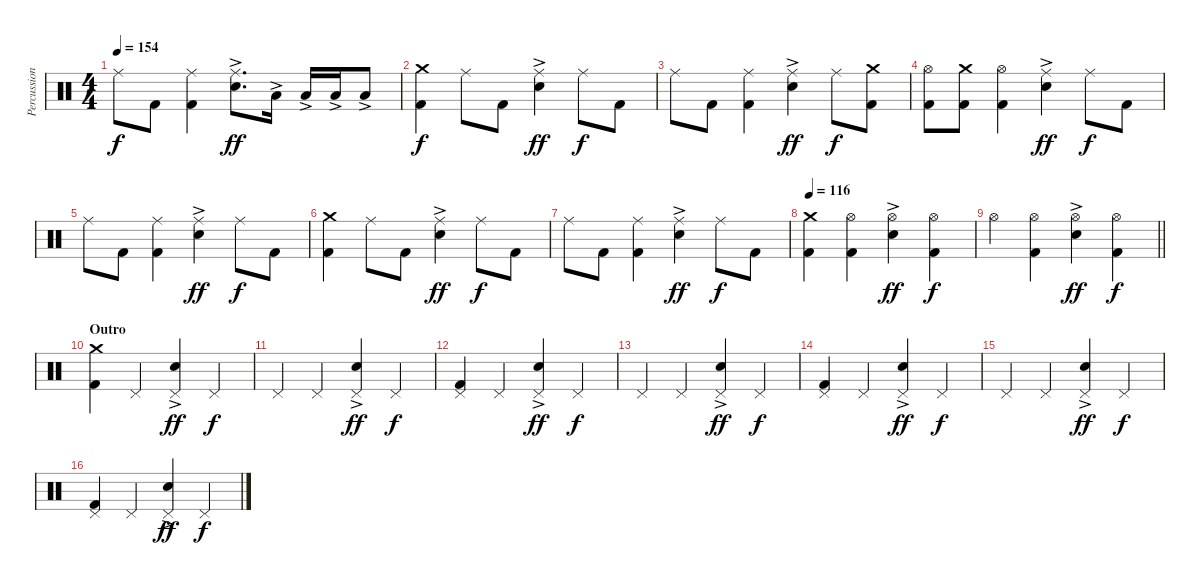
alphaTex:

\track ("Percussion" "Percussion") {instrument percussion}
\staff {score}
\articulation defaults
\ts (4 4)
\tempo 154
\clef neutral
\ks c "Ride (middle)".8{dy f} "Kick (hit) 2".8
("Ride (middle)" "Kick (hit) 2").4 ("Ride (middle)" "Electric Snare (hit)"{ac}).8{d dy ff} "Low Tom (hit)"{ac}.16 "Low Tom (hit)"{ac}.16 "Low Tom (hit)"{ac}.16 "Low Tom (hit)"{ac}.8 |
("Crash medium (hit)" "Kick (hit) 2").4{dy f} "Ride (middle)".8 "Kick (hit) 2".8 ("Ride (middle)" "Electric Snare (hit)"{ac}).4{dy ff} "Ride (middle)".8{dy f} "Kick (hit) 2".8 |
"Ride (middle)".8 "Kick (hit) 2".8 ("Ride (middle)" "Kick (hit) 2").4 ("Ride (middle)" "Electric Snare (hit)"{ac}).4{dy ff} "Ride (middle)".8{dy f} ("Crash medium (hit)" "Kick (hit) 2").8 |
("Hi-Hat (open)" "Kick (hit) 2").8 ("Crash medium (hit)" "Kick (hit) 2").8 ("Hi-Hat (open)" "Kick (hit) 2").4 ("Ride (middle)" "Electric Snare (hit)"{ac}).4{dy ff} "Ride (middle)".8{dy f} "Kick (hit) 2".8 |
"Ride (middle)".8 "Kick (hit) 2".8 ("Ride (middle)" "Kick (hit) 2").4 ("Ride (middle)" "Electric Snare (hit)"{ac}).4{dy ff} "Ride (middle)".8{dy f} "Kick (hit) 2".8 |
("Crash medium (hit)" "Kick (hit) 2").4 "Ride (middle)".8 "Kick (hit) 2".8 ("Ride (middle)" "Electric Snare (hit)"{ac}).4{dy ff} "Ride (middle)".8{dy f} "Kick (hit) 2".8 |
"Ride (middle)".8 "Kick (hit) 2".8 ("Ride (middle)" "Kick (hit) 2").4 ("Ride (middle)" "Electric Snare (hit)"{ac}).4{dy ff} "Ride (middle)".8{dy f} "Kick (hit) 2".8 |
\tempo 116
("Crash medium (hit)" "Kick (hit) 2").4 ("Hi-Hat (open)" "Kick (hit) 2").4 ("Hi-Hat (open)" "Electric Snare (hit)"{ac}).4{dy ff} ("Hi-Hat (open)" "Kick (hit) 2").4{dy f} |
\barLineRight lightlight "Hi-Hat (open)".4
("Hi-Hat (open)" "Kick (hit) 2").4 ("Hi-Hat (open)" "Electric Snare (hit)"{ac}).4{dy ff} ("Hi-Hat (open)" "Kick (hit) 2").4{dy f} |
\section ("" "Outro")
("Crash medium (hit)" "Kick (hit) 2").4 "Pedal Hi-Hat (hit)".4 ("Pedal Hi-Hat (hit)" "Electric Snare (hit)"{ac}).4{dy ff} "Pedal Hi-Hat (hit)".4{dy f} |
"Pedal Hi-Hat (hit)".4 "Pedal Hi-Hat (hit)".4 ("Pedal Hi-Hat (hit)" "Electric Snare (hit)"{ac}).4{dy ff} "Pedal Hi-Hat (hit)".4{dy f} |
("Pedal Hi-Hat (hit)" "Kick (hit) 2").4 "Pedal Hi-Hat (hit)".4 ("Pedal Hi-Hat (hit)" "Electric Snare (hit)"{ac}).4{dy ff} "Pedal Hi-Hat (hit)".4{dy f} |
"Pedal Hi-Hat (hit)".4 "Pedal Hi-Hat (hit)".4 ("Pedal Hi-Hat (hit)" "Electric Snare (hit)"{ac}).4{dy ff} "Pedal Hi-Hat (hit)".4{dy f} |
("Pedal Hi-Hat (hit)" "Kick (hit) 2").4 "Pedal Hi-Hat (hit)".4 ("Pedal Hi-Hat (hit)" "Electric Snare (hit)"{ac}).4{dy ff} "Pedal Hi-Hat (hit)".4{dy f} |
"Pedal Hi-Hat (hit)".4 "Pedal Hi-Hat (hit)".4 ("Pedal Hi-Hat (hit)" "Electric Snare (hit)"{ac}).4{dy ff} "Pedal Hi-Hat (hit)".4{dy f} |
("Pedal Hi-Hat (hit)" "Kick (hit) 2").4 "Pedal Hi-Hat (hit)".4 ("Pedal Hi-Hat (hit)" "Electric Snare (hit)"{ac}).4{dy ff} "Pedal Hi-Hat (hit)".4{dy f}
